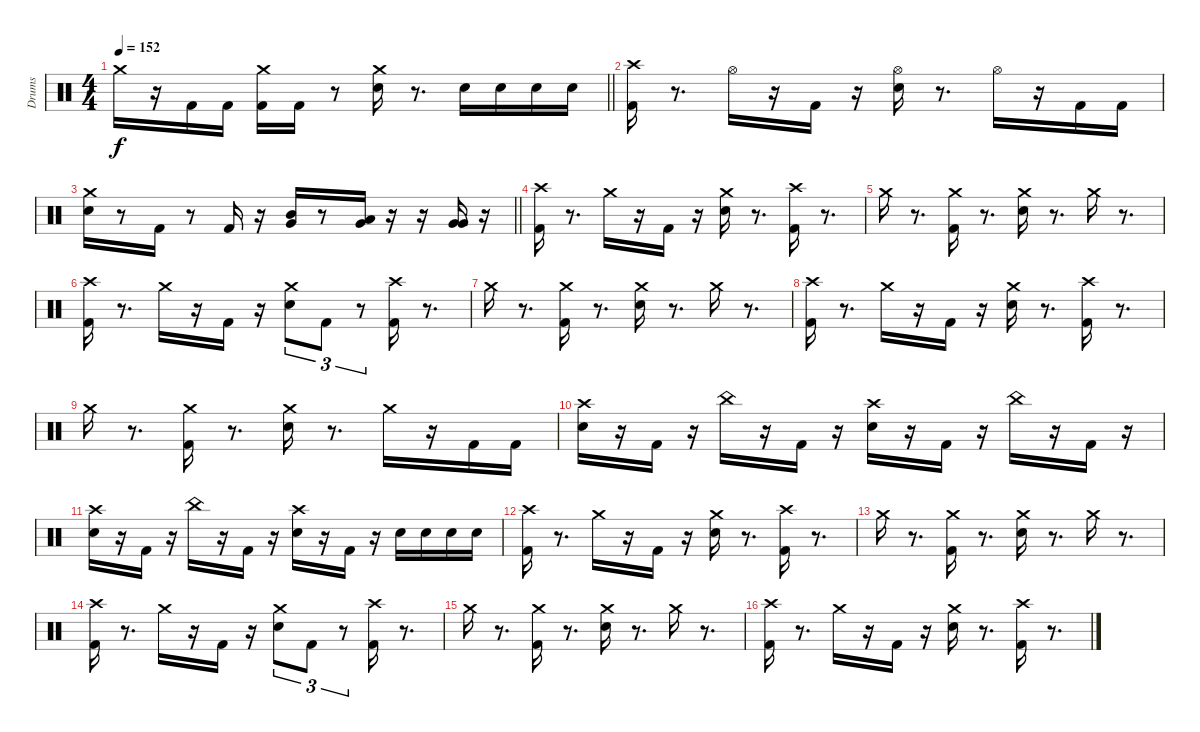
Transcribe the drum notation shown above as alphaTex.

\track ("Drums" "Drums") {instrument percussion}
\staff {score}
\articulation defaults
\ts (4 4)
\tempo 152
\clef neutral
\barLineRight lightlight
\ks c "Crash medium (hit)".16{dy f}
r.16 "Kick (hit) 2".16 "Kick (hit) 2".16 ("Kick (hit) 2" "Crash medium (hit)").16 "Kick (hit) 2".16 r.8 ("Snare (hit) 2" "Crash medium (hit)").16 r.8{d} "Snare (hit) 2".16 "Snare (hit) 2".16 "Snare (hit) 2".16 "Snare (hit) 2".16 |
\section ("" " ")
("Kick (hit) 2" "Crash high (hit)").16 r.8{d} "Hi-Hat (open)".16 r.16 "Kick (hit) 2".16 r.16 ("Snare (hit) 2" "Hi-Hat (open)").16 r.8{d} "Hi-Hat (open)".16 r.16 "Kick (hit) 2".16 "Kick (hit) 2".16 |
\barLineRight lightlight
("Snare (hit) 2" "Crash medium (hit)").16 r.8 "Kick (hit) 2".16 r.8 "Kick (hit) 2".16 r.16 ("Mid Tom (hit)" "Very Low Tom (hit)").16 r.8 ("Low Tom (hit)" "Very Low Tom (hit)").16 r.16 r.16 ("Very Low Tom (hit)" "Very Low Tom (hit)").16 r.16 |
\section ("" " ")
("Kick (hit) 2" "Crash high (hit)").16 r.8{d} "Crash medium (hit)".16 r.16 "Kick (hit) 2".16 r.16 ("Snare (hit) 2" "Crash medium (hit)").16 r.8{d} ("Kick (hit) 2" "Crash high (hit)").16 r.8{d} |
"Crash medium (hit)".16 r.8{d} ("Kick (hit) 2" "Crash medium (hit)").16 r.8{d} ("Snare (hit) 2" "Crash medium (hit)").16 r.8{d} "Crash medium (hit)".16 r.8{d} |
("Kick (hit) 2" "Crash high (hit)").16 r.8{d} "Crash medium (hit)".16 r.16 "Kick (hit) 2".16 r.16 ("Snare (hit) 2" "Crash medium (hit)").8{tu (3 2)} "Kick (hit) 2".8{tu (3 2)} r.8{tu (3 2)} ("Kick (hit) 2" "Crash high (hit)").16 r.8{d} |
"Crash medium (hit)".16 r.8{d} ("Kick (hit) 2" "Crash medium (hit)").16 r.8{d} ("Snare (hit) 2" "Crash medium (hit)").16 r.8{d} "Crash medium (hit)".16 r.8{d} |
("Kick (hit) 2" "Crash high (hit)").16 r.8{d} "Crash medium (hit)".16 r.16 "Kick (hit) 2".16 r.16 ("Snare (hit) 2" "Crash medium (hit)").16 r.8{d} ("Kick (hit) 2" "Crash high (hit)").16 r.8{d} |
"Crash medium (hit)".16 r.8{d} ("Kick (hit) 2" "Crash medium (hit)").16 r.8{d} ("Snare (hit) 2" "Crash medium (hit)").16 r.8{d} "Crash medium (hit)".16 r.16 "Kick (hit) 2".16 "Kick (hit) 2".16 |
("Snare (hit) 2" "Crash high (hit)").16 r.16 "Kick (hit) 2".16 r.16 "China (hit)".16 r.16 "Kick (hit) 2".16 r.16 ("Snare (hit) 2" "Crash high (hit)").16 r.16 "Kick (hit) 2".16 r.16 "China (hit)".16 r.16 "Kick (hit) 2".16 r.16 |
("Snare (hit) 2" "Crash high (hit)").16 r.16 "Kick (hit) 2".16 r.16 "China (hit)".16 r.16 "Kick (hit) 2".16 r.16 ("Snare (hit) 2" "Crash high (hit)").16 r.16 "Kick (hit) 2".16 r.16 "Snare (hit) 2".16 "Snare (hit) 2".16 "Snare (hit) 2".16 "Snare (hit) 2".16 |
("Kick (hit) 2" "Crash high (hit)").16 r.8{d} "Crash medium (hit)".16 r.16 "Kick (hit) 2".16 r.16 ("Snare (hit) 2" "Crash medium (hit)").16 r.8{d} ("Kick (hit) 2" "Crash high (hit)").16 r.8{d} |
"Crash medium (hit)".16 r.8{d} ("Kick (hit) 2" "Crash medium (hit)").16 r.8{d} ("Snare (hit) 2" "Crash medium (hit)").16 r.8{d} "Crash medium (hit)".16 r.8{d} |
("Kick (hit) 2" "Crash high (hit)").16 r.8{d} "Crash medium (hit)".16 r.16 "Kick (hit) 2".16 r.16 ("Snare (hit) 2" "Crash medium (hit)").8{tu (3 2)} "Kick (hit) 2".8{tu (3 2)} r.8{tu (3 2)} ("Kick (hit) 2" "Crash high (hit)").16 r.8{d} |
"Crash medium (hit)".16 r.8{d} ("Kick (hit) 2" "Crash medium (hit)").16 r.8{d} ("Snare (hit) 2" "Crash medium (hit)").16 r.8{d} "Crash medium (hit)".16 r.8{d} |
("Kick (hit) 2" "Crash high (hit)").16 r.8{d} "Crash medium (hit)".16 r.16 "Kick (hit) 2".16 r.16 ("Snare (hit) 2" "Crash medium (hit)").16 r.8{d} ("Kick (hit) 2" "Crash high (hit)").16 r.8{d}
